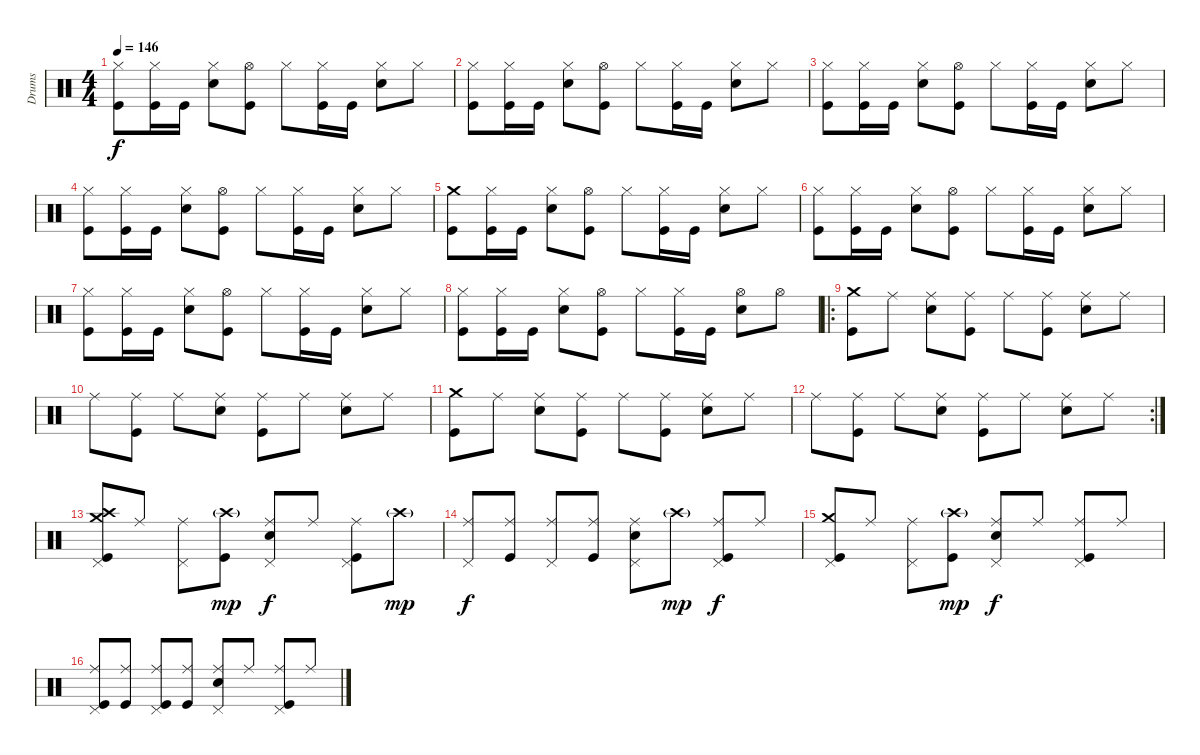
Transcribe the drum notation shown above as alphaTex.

\track ("Drums" "Drums") {instrument percussion}
\staff {score}
\articulation defaults
\ts (4 4)
\tempo 146
\clef neutral
\ks c
("Hi-Hat (closed)" "Kick (hit)").8{dy f} ("Hi-Hat (closed)" "Kick (hit)").16 "Kick (hit)".16 ("Hi-Hat (closed)" "Electric Snare (hit)").8 ("Hi-Hat (open)" "Kick (hit)").8 "Hi-Hat (closed)".8 ("Hi-Hat (closed)" "Kick (hit)").16 "Kick (hit)".16 ("Hi-Hat (closed)" "Electric Snare (hit)").8 "Hi-Hat (closed)".8 |
("Hi-Hat (closed)" "Kick (hit)").8 ("Hi-Hat (closed)" "Kick (hit)").16 "Kick (hit)".16 ("Hi-Hat (closed)" "Electric Snare (hit)").8 ("Hi-Hat (open)" "Kick (hit)").8 "Hi-Hat (closed)".8 ("Hi-Hat (closed)" "Kick (hit)").16 "Kick (hit)".16 ("Hi-Hat (closed)" "Electric Snare (hit)").8 "Hi-Hat (closed)".8 |
("Hi-Hat (closed)" "Kick (hit)").8 ("Hi-Hat (closed)" "Kick (hit)").16 "Kick (hit)".16 ("Hi-Hat (closed)" "Electric Snare (hit)").8 ("Hi-Hat (open)" "Kick (hit)").8 "Hi-Hat (closed)".8 ("Hi-Hat (closed)" "Kick (hit)").16 "Kick (hit)".16 ("Hi-Hat (closed)" "Electric Snare (hit)").8 "Hi-Hat (closed)".8 |
("Hi-Hat (closed)" "Kick (hit)").8 ("Hi-Hat (closed)" "Kick (hit)").16 "Kick (hit)".16 ("Hi-Hat (closed)" "Electric Snare (hit)").8 ("Hi-Hat (open)" "Kick (hit)").8 "Hi-Hat (closed)".8 ("Hi-Hat (closed)" "Kick (hit)").16 "Kick (hit)".16 ("Hi-Hat (closed)" "Electric Snare (hit)").8 "Hi-Hat (closed)".8 |
("Crash medium (hit)" "Kick (hit)").8 ("Hi-Hat (closed)" "Kick (hit)").16 "Kick (hit)".16 ("Hi-Hat (closed)" "Electric Snare (hit)").8 ("Hi-Hat (open)" "Kick (hit)").8 "Hi-Hat (closed)".8 ("Hi-Hat (closed)" "Kick (hit)").16 "Kick (hit)".16 ("Hi-Hat (closed)" "Electric Snare (hit)").8 "Hi-Hat (closed)".8 |
("Hi-Hat (closed)" "Kick (hit)").8 ("Hi-Hat (closed)" "Kick (hit)").16 "Kick (hit)".16 ("Hi-Hat (closed)" "Electric Snare (hit)").8 ("Hi-Hat (open)" "Kick (hit)").8 "Hi-Hat (closed)".8 ("Hi-Hat (closed)" "Kick (hit)").16 "Kick (hit)".16 ("Hi-Hat (closed)" "Electric Snare (hit)").8 "Hi-Hat (closed)".8 |
("Hi-Hat (closed)" "Kick (hit)").8 ("Hi-Hat (closed)" "Kick (hit)").16 "Kick (hit)".16 ("Hi-Hat (closed)" "Electric Snare (hit)").8 ("Hi-Hat (open)" "Kick (hit)").8 "Hi-Hat (closed)".8 ("Hi-Hat (closed)" "Kick (hit)").16 "Kick (hit)".16 ("Hi-Hat (closed)" "Electric Snare (hit)").8 "Hi-Hat (closed)".8 |
("Hi-Hat (closed)" "Kick (hit)").8 ("Hi-Hat (closed)" "Kick (hit)").16 "Kick (hit)".16 ("Hi-Hat (closed)" "Electric Snare (hit)").8 ("Hi-Hat (open)" "Kick (hit)").8 "Hi-Hat (closed)".8 ("Hi-Hat (closed)" "Kick (hit)").16 "Kick (hit)".16 ("Hi-Hat (open)" "Electric Snare (hit)").8 "Hi-Hat (open)".8 |
\ro
("Crash medium (hit)" "Kick (hit)").8 "Ride (middle)".8 ("Ride (middle)" "Electric Snare (hit)").8 ("Ride (middle)" "Kick (hit)").8 "Ride (middle)".8 ("Ride (middle)" "Kick (hit)").8 ("Ride (middle)" "Electric Snare (hit)").8 "Ride (middle)".8 |
"Ride (middle)".8 ("Ride (middle)" "Kick (hit)").8 "Ride (middle)".8 ("Ride (middle)" "Electric Snare (hit)").8 ("Ride (middle)" "Kick (hit)").8 "Ride (middle)".8 ("Ride (middle)" "Electric Snare (hit)").8 "Ride (middle)".8 |
("Crash medium (hit)" "Kick (hit)").8 "Ride (middle)".8 ("Ride (middle)" "Electric Snare (hit)").8 ("Ride (middle)" "Kick (hit)").8 "Ride (middle)".8 ("Ride (middle)" "Kick (hit)").8 ("Ride (middle)" "Electric Snare (hit)").8 "Ride (middle)".8 |
\rc 2 "Ride (middle)".8
("Ride (middle)" "Kick (hit)").8 "Ride (middle)".8 ("Ride (middle)" "Electric Snare (hit)").8 ("Ride (middle)" "Kick (hit)").8 "Ride (middle)".8 ("Ride (middle)" "Electric Snare (hit)").8 "Ride (middle)".8 |
("Crash medium (hit)" "Crash high (hit)" "Pedal Hi-Hat (hit)" "Kick (hit)").8 "Ride (middle)".8 ("Ride (middle)" "Pedal Hi-Hat (hit)").8 ("Crash high (hit)"{g} "Kick (hit)").8{dy mp} ("Ride (middle)" "Pedal Hi-Hat (hit)" "Electric Snare (hit)").8{dy f} "Ride (middle)".8 ("Ride (middle)" "Pedal Hi-Hat (hit)" "Kick (hit)").8 "Crash high (hit)"{g}.8{dy mp} |
("Ride (middle)" "Pedal Hi-Hat (hit)").8{dy f} ("Ride (middle)" "Kick (hit)").8 ("Ride (middle)" "Pedal Hi-Hat (hit)").8 ("Ride (middle)" "Kick (hit)").8 ("Ride (middle)" "Pedal Hi-Hat (hit)" "Electric Snare (hit)").8 "Crash high (hit)"{g}.8{dy mp} ("Ride (middle)" "Pedal Hi-Hat (hit)" "Kick (hit)").8{dy f} "Ride (middle)".8 |
("Crash medium (hit)" "Pedal Hi-Hat (hit)" "Kick (hit)").8 "Ride (middle)".8 ("Ride (middle)" "Pedal Hi-Hat (hit)").8 ("Crash high (hit)"{g} "Kick (hit)").8{dy mp} ("Ride (middle)" "Pedal Hi-Hat (hit)" "Electric Snare (hit)").8{dy f} "Ride (middle)".8 ("Ride (middle)" "Pedal Hi-Hat (hit)" "Kick (hit)").8 "Ride (middle)".8 |
("Ride (middle)" "Pedal Hi-Hat (hit)" "Kick (hit)").8 ("Ride (middle)" "Kick (hit)").8 ("Ride (middle)" "Pedal Hi-Hat (hit)" "Kick (hit)").8 ("Ride (middle)" "Kick (hit)").8 ("Ride (middle)" "Pedal Hi-Hat (hit)" "Electric Snare (hit)").8 "Ride (middle)".8 ("Ride (middle)" "Pedal Hi-Hat (hit)" "Kick (hit)").8 "Ride (middle)".8
